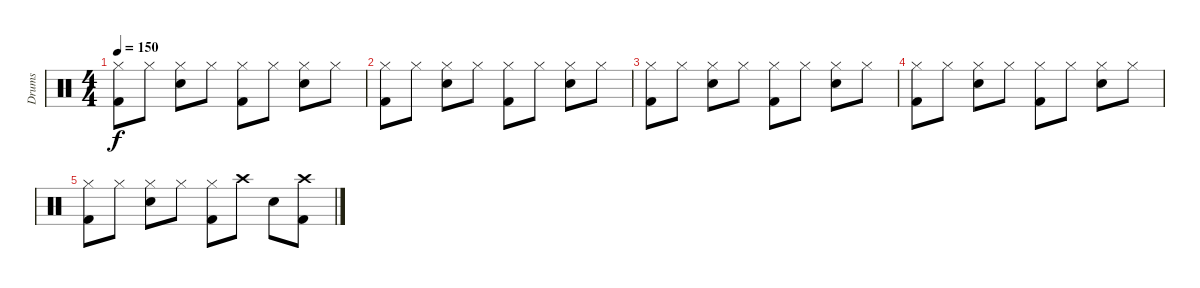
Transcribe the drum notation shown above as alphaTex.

\track ("Drums" "Drums") {instrument percussion}
\staff {score}
\articulation defaults
\ts (4 4)
\tempo 150
\clef neutral
\ks c
("Hi-Hat (closed)" "Kick (hit) 2").8{dy f} "Hi-Hat (closed)".8 ("Hi-Hat (closed)" "Electric Snare (hit)").8 "Hi-Hat (closed)".8 ("Hi-Hat (closed)" "Kick (hit) 2").8 "Hi-Hat (closed)".8 ("Hi-Hat (closed)" "Electric Snare (hit)").8 "Hi-Hat (closed)".8 |
("Hi-Hat (closed)" "Kick (hit) 2").8 "Hi-Hat (closed)".8 ("Hi-Hat (closed)" "Electric Snare (hit)").8 "Hi-Hat (closed)".8 ("Hi-Hat (closed)" "Kick (hit) 2").8 "Hi-Hat (closed)".8 ("Hi-Hat (closed)" "Electric Snare (hit)").8 "Hi-Hat (closed)".8 |
("Hi-Hat (closed)" "Kick (hit) 2").8 "Hi-Hat (closed)".8 ("Hi-Hat (closed)" "Electric Snare (hit)").8 "Hi-Hat (closed)".8 ("Hi-Hat (closed)" "Kick (hit) 2").8 "Hi-Hat (closed)".8 ("Hi-Hat (closed)" "Electric Snare (hit)").8 "Hi-Hat (closed)".8 |
("Hi-Hat (closed)" "Kick (hit) 2").8 "Hi-Hat (closed)".8 ("Hi-Hat (closed)" "Electric Snare (hit)").8 "Hi-Hat (closed)".8 ("Hi-Hat (closed)" "Kick (hit) 2").8 "Hi-Hat (closed)".8 ("Hi-Hat (closed)" "Electric Snare (hit)").8 "Hi-Hat (closed)".8 |
("Hi-Hat (closed)" "Kick (hit) 2").8 "Hi-Hat (closed)".8 ("Hi-Hat (closed)" "Electric Snare (hit)").8 "Hi-Hat (closed)".8 ("Hi-Hat (closed)" "Kick (hit) 2").8 "Crash high (hit)".8 "Electric Snare (hit)".8 ("Crash high (hit)" "Kick (hit) 2").8
